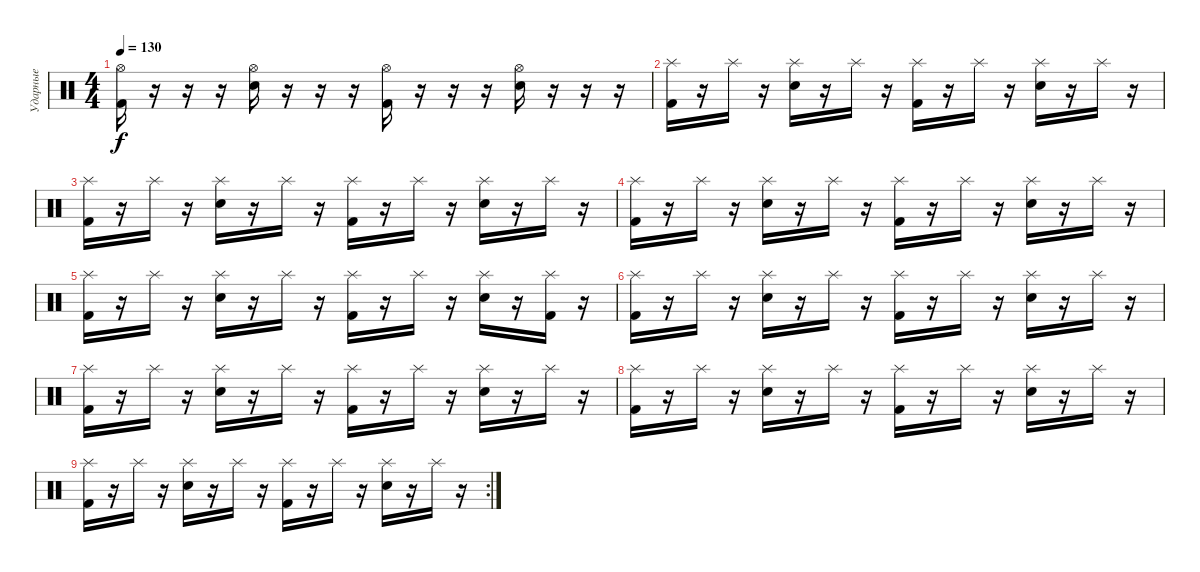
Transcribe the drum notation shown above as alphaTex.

\track ("Ударные" "Ударные") {instrument percussion}
\staff {score}
\articulation defaults
\ts (4 4)
\tempo 130
\clef neutral
\ks c
("Hi-Hat (open)" "Kick (hit) 2").16{dy f} r.16 r.16 r.16 ("Hi-Hat (open)" "Electric Snare (hit)").16 r.16 r.16 r.16 ("Hi-Hat (open)" "Kick (hit) 2").16 r.16 r.16 r.16 ("Hi-Hat (open)" "Electric Snare (hit)").16 r.16 r.16 r.16 |
("Splash (hit)" "Kick (hit) 2").16 r.16 "Splash (hit)".16 r.16 ("Splash (hit)" "Electric Snare (hit)").16 r.16 "Splash (hit)".16 r.16 ("Splash (hit)" "Kick (hit) 2").16 r.16 "Splash (hit)".16 r.16 ("Splash (hit)" "Electric Snare (hit)").16 r.16 "Splash (hit)".16 r.16 |
("Splash (hit)" "Kick (hit) 2").16 r.16 "Splash (hit)".16 r.16 ("Splash (hit)" "Electric Snare (hit)").16 r.16 "Splash (hit)".16 r.16 ("Splash (hit)" "Kick (hit) 2").16 r.16 "Splash (hit)".16 r.16 ("Splash (hit)" "Electric Snare (hit)").16 r.16 "Splash (hit)".16 r.16 |
("Splash (hit)" "Kick (hit) 2").16 r.16 "Splash (hit)".16 r.16 ("Splash (hit)" "Electric Snare (hit)").16 r.16 "Splash (hit)".16 r.16 ("Splash (hit)" "Kick (hit) 2").16 r.16 "Splash (hit)".16 r.16 ("Splash (hit)" "Electric Snare (hit)").16 r.16 "Splash (hit)".16 r.16 |
("Splash (hit)" "Kick (hit) 2").16 r.16 "Splash (hit)".16 r.16 ("Splash (hit)" "Electric Snare (hit)").16 r.16 "Splash (hit)".16 r.16 ("Splash (hit)" "Kick (hit) 2").16 r.16 "Splash (hit)".16 r.16 ("Splash (hit)" "Electric Snare (hit)").16 r.16 ("Splash (hit)" "Kick (hit) 2").16 r.16 |
("Splash (hit)" "Kick (hit) 2").16 r.16 "Splash (hit)".16 r.16 ("Splash (hit)" "Electric Snare (hit)").16 r.16 "Splash (hit)".16 r.16 ("Splash (hit)" "Kick (hit) 2").16 r.16 "Splash (hit)".16 r.16 ("Splash (hit)" "Electric Snare (hit)").16 r.16 "Splash (hit)".16 r.16 |
("Splash (hit)" "Kick (hit) 2").16 r.16 "Splash (hit)".16 r.16 ("Splash (hit)" "Electric Snare (hit)").16 r.16 "Splash (hit)".16 r.16 ("Splash (hit)" "Kick (hit) 2").16 r.16 "Splash (hit)".16 r.16 ("Splash (hit)" "Electric Snare (hit)").16 r.16 "Splash (hit)".16 r.16 |
("Splash (hit)" "Kick (hit) 2").16 r.16 "Splash (hit)".16 r.16 ("Splash (hit)" "Electric Snare (hit)").16 r.16 "Splash (hit)".16 r.16 ("Splash (hit)" "Kick (hit) 2").16 r.16 "Splash (hit)".16 r.16 ("Splash (hit)" "Electric Snare (hit)").16 r.16 "Splash (hit)".16 r.16 |
\rc 2
("Splash (hit)" "Kick (hit) 2").16 r.16 "Splash (hit)".16 r.16 ("Splash (hit)" "Electric Snare (hit)").16 r.16 "Splash (hit)".16 r.16 ("Splash (hit)" "Kick (hit) 2").16 r.16 "Splash (hit)".16 r.16 ("Splash (hit)" "Electric Snare (hit)").16 r.16 "Splash (hit)".16 r.16
